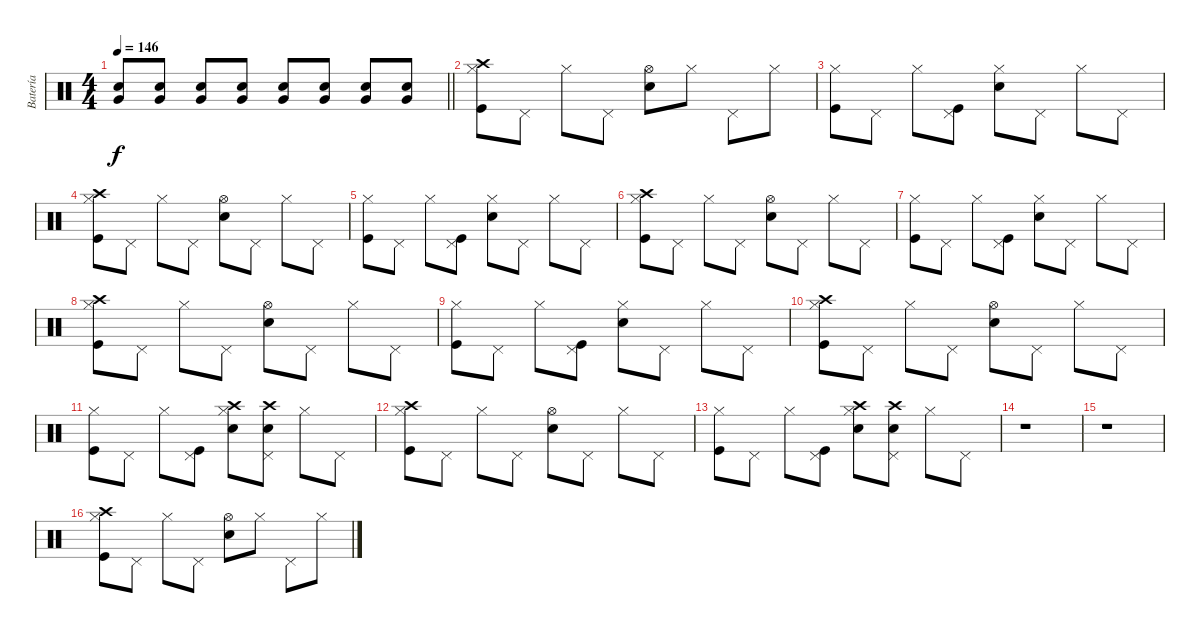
\track ("Batería" "Batería") {instrument percussion}
\staff {score}
\articulation defaults
\ts (4 4)
\tempo 146
\clef neutral
\barLineRight lightlight
\ks c
("Very Low Tom (hit)" "Electric Snare (hit)").8{dy f} ("Very Low Tom (hit)" "Electric Snare (hit)").8 ("Very Low Tom (hit)" "Electric Snare (hit)").8 ("Very Low Tom (hit)" "Electric Snare (hit)").8 ("Very Low Tom (hit)" "Electric Snare (hit)").8 ("Very Low Tom (hit)" "Electric Snare (hit)").8 ("Very Low Tom (hit)" "Electric Snare (hit)").8 ("Very Low Tom (hit)" "Electric Snare (hit)").8 |
("Crash high (hit)" "Kick (hit)" "Hi-Hat (closed)").8 "Pedal Hi-Hat (hit)".8 "Hi-Hat (closed)".8 "Pedal Hi-Hat (hit)".8 ("Electric Snare (hit)" "Hi-Hat (open)").8 "Hi-Hat (closed)".8 "Pedal Hi-Hat (hit)".8 "Hi-Hat (closed)".8 |
("Kick (hit)" "Hi-Hat (closed)").8 "Pedal Hi-Hat (hit)".8 "Hi-Hat (closed)".8 ("Kick (hit)" "Pedal Hi-Hat (hit)").8 ("Electric Snare (hit)" "Hi-Hat (closed)").8 "Pedal Hi-Hat (hit)".8 "Hi-Hat (closed)".8 "Pedal Hi-Hat (hit)".8 |
("Crash high (hit)" "Kick (hit)" "Hi-Hat (closed)").8 "Pedal Hi-Hat (hit)".8 "Hi-Hat (closed)".8 "Pedal Hi-Hat (hit)".8 ("Electric Snare (hit)" "Hi-Hat (open)").8 "Pedal Hi-Hat (hit)".8 "Hi-Hat (closed)".8 "Pedal Hi-Hat (hit)".8 |
("Kick (hit)" "Hi-Hat (closed)").8 "Pedal Hi-Hat (hit)".8 "Hi-Hat (closed)".8 ("Kick (hit)" "Pedal Hi-Hat (hit)").8 ("Electric Snare (hit)" "Hi-Hat (closed)").8 "Pedal Hi-Hat (hit)".8 "Hi-Hat (closed)".8 "Pedal Hi-Hat (hit)".8 |
("Crash high (hit)" "Kick (hit)" "Hi-Hat (closed)").8 "Pedal Hi-Hat (hit)".8 "Hi-Hat (closed)".8 "Pedal Hi-Hat (hit)".8 ("Electric Snare (hit)" "Hi-Hat (open)").8 "Pedal Hi-Hat (hit)".8 "Hi-Hat (closed)".8 "Pedal Hi-Hat (hit)".8 |
("Kick (hit)" "Hi-Hat (closed)").8 "Pedal Hi-Hat (hit)".8 "Hi-Hat (closed)".8 ("Kick (hit)" "Pedal Hi-Hat (hit)").8 ("Electric Snare (hit)" "Hi-Hat (closed)").8 "Pedal Hi-Hat (hit)".8 "Hi-Hat (closed)".8 "Pedal Hi-Hat (hit)".8 |
("Crash high (hit)" "Kick (hit)" "Hi-Hat (closed)").8 "Pedal Hi-Hat (hit)".8 "Hi-Hat (closed)".8 "Pedal Hi-Hat (hit)".8 ("Electric Snare (hit)" "Hi-Hat (open)").8 "Pedal Hi-Hat (hit)".8 "Hi-Hat (closed)".8 "Pedal Hi-Hat (hit)".8 |
("Kick (hit)" "Hi-Hat (closed)").8 "Pedal Hi-Hat (hit)".8 "Hi-Hat (closed)".8 ("Kick (hit)" "Pedal Hi-Hat (hit)").8 ("Electric Snare (hit)" "Hi-Hat (closed)").8 "Pedal Hi-Hat (hit)".8 "Hi-Hat (closed)".8 "Pedal Hi-Hat (hit)".8 |
("Crash high (hit)" "Kick (hit)" "Hi-Hat (closed)").8 "Pedal Hi-Hat (hit)".8 "Hi-Hat (closed)".8 "Pedal Hi-Hat (hit)".8 ("Electric Snare (hit)" "Hi-Hat (open)").8 "Pedal Hi-Hat (hit)".8 "Hi-Hat (closed)".8 "Pedal Hi-Hat (hit)".8 |
("Kick (hit)" "Hi-Hat (closed)").8 "Pedal Hi-Hat (hit)".8 "Hi-Hat (closed)".8 ("Kick (hit)" "Pedal Hi-Hat (hit)").8 ("Crash high (hit)" "Electric Snare (hit)" "Hi-Hat (closed)").8 ("Crash high (hit)" "Electric Snare (hit)" "Pedal Hi-Hat (hit)").8 "Hi-Hat (closed)".8 "Pedal Hi-Hat (hit)".8 |
("Crash high (hit)" "Kick (hit)" "Hi-Hat (closed)").8 "Pedal Hi-Hat (hit)".8 "Hi-Hat (closed)".8 "Pedal Hi-Hat (hit)".8 ("Electric Snare (hit)" "Hi-Hat (open)").8 "Pedal Hi-Hat (hit)".8 "Hi-Hat (closed)".8 "Pedal Hi-Hat (hit)".8 |
("Kick (hit)" "Hi-Hat (closed)").8 "Pedal Hi-Hat (hit)".8 "Hi-Hat (closed)".8 ("Kick (hit)" "Pedal Hi-Hat (hit)").8 ("Crash high (hit)" "Electric Snare (hit)" "Hi-Hat (closed)").8 ("Crash high (hit)" "Electric Snare (hit)" "Pedal Hi-Hat (hit)").8 "Hi-Hat (closed)".8 "Pedal Hi-Hat (hit)".8 |
r.1 |
r.1 |
("Crash high (hit)" "Kick (hit)" "Hi-Hat (closed)").8 "Pedal Hi-Hat (hit)".8 "Hi-Hat (closed)".8 "Pedal Hi-Hat (hit)".8 ("Electric Snare (hit)" "Hi-Hat (open)").8 "Hi-Hat (closed)".8 "Pedal Hi-Hat (hit)".8 "Hi-Hat (closed)".8
